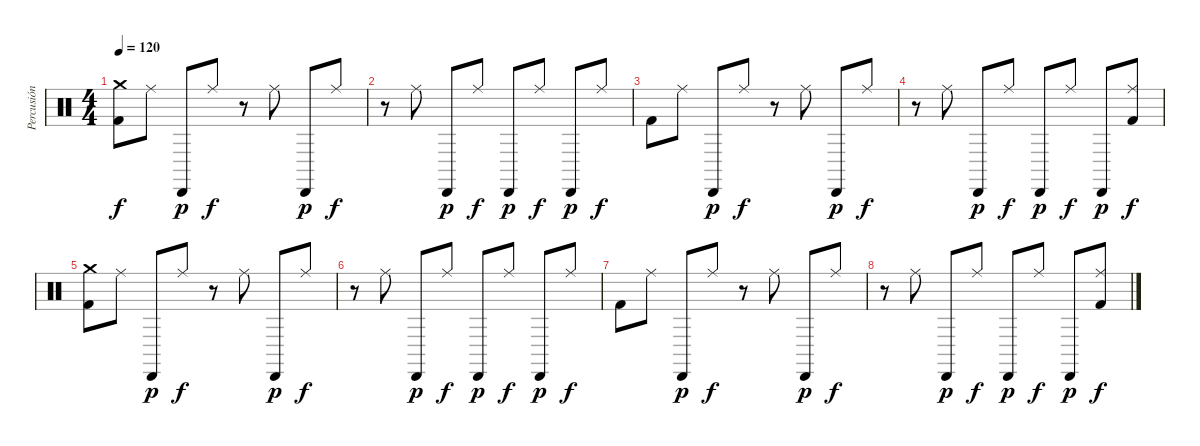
\track ("Percusión" "Percusión") {instrument percussion}
\staff {score}
\articulation defaults
\ts (4 4)
\tempo 120
\clef neutral
\ks c
("Kick (hit) 2" "Crash medium (hit)").8{dy f} "Ride (middle)".8 "Cabasa (hit)".8{dy p} "Ride (middle)".8{dy f} r.8 "Ride (middle)".8 "Cabasa (hit)".8{dy p} "Ride (middle)".8{dy f} |
r.8 "Ride (middle)".8 "Cabasa (hit)".8{dy p} "Ride (middle)".8{dy f} "Cabasa (hit)".8{dy p} "Ride (middle)".8{dy f} "Cabasa (hit)".8{dy p} "Ride (middle)".8{dy f} |
"Kick (hit) 2".8 "Ride (middle)".8 "Cabasa (hit)".8{dy p} "Ride (middle)".8{dy f} r.8 "Ride (middle)".8 "Cabasa (hit)".8{dy p} "Ride (middle)".8{dy f} |
r.8 "Ride (middle)".8 "Cabasa (hit)".8{dy p} "Ride (middle)".8{dy f} "Cabasa (hit)".8{dy p} "Ride (middle)".8{dy f} "Cabasa (hit)".8{dy p} ("Kick (hit) 2" "Ride (middle)").8{dy f} |
("Kick (hit) 2" "Crash medium (hit)").8 "Ride (middle)".8 "Cabasa (hit)".8{dy p} "Ride (middle)".8{dy f} r.8 "Ride (middle)".8 "Cabasa (hit)".8{dy p} "Ride (middle)".8{dy f} |
r.8 "Ride (middle)".8 "Cabasa (hit)".8{dy p} "Ride (middle)".8{dy f} "Cabasa (hit)".8{dy p} "Ride (middle)".8{dy f} "Cabasa (hit)".8{dy p} "Ride (middle)".8{dy f} |
"Kick (hit) 2".8 "Ride (middle)".8 "Cabasa (hit)".8{dy p} "Ride (middle)".8{dy f} r.8 "Ride (middle)".8 "Cabasa (hit)".8{dy p} "Ride (middle)".8{dy f} |
r.8 "Ride (middle)".8 "Cabasa (hit)".8{dy p} "Ride (middle)".8{dy f} "Cabasa (hit)".8{dy p} "Ride (middle)".8{dy f} "Cabasa (hit)".8{dy p} ("Kick (hit) 2" "Ride (middle)").8{dy f}
